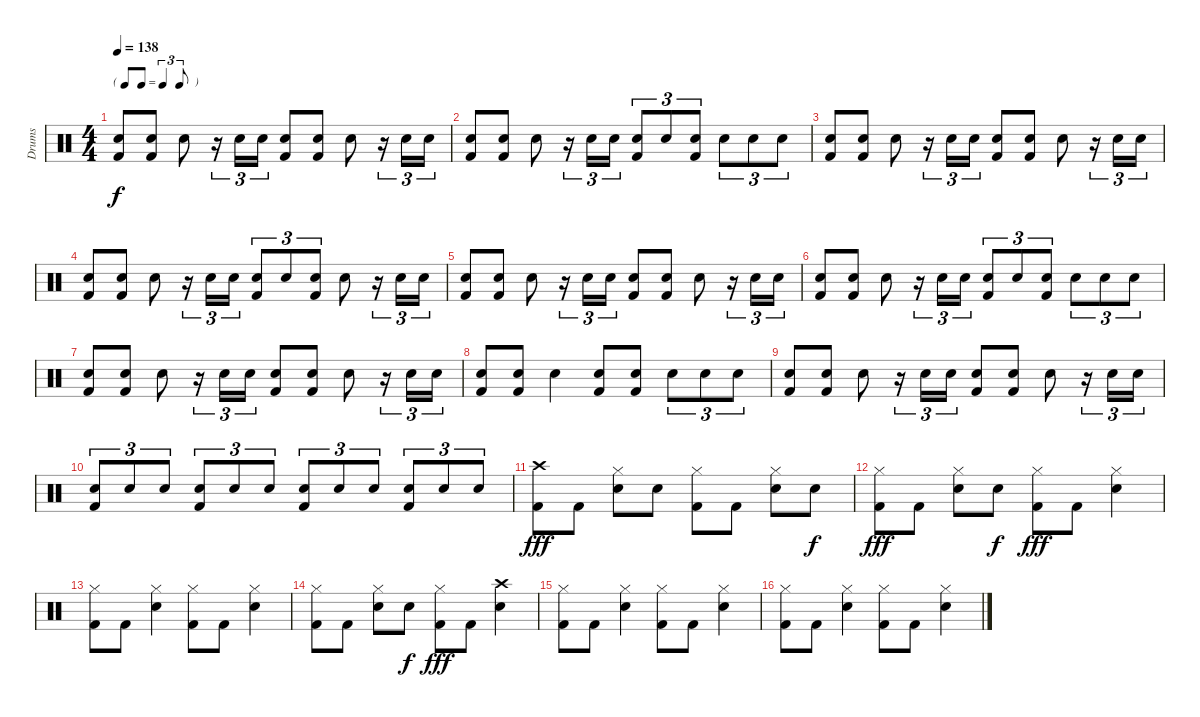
\track ("Drums" "Drums") {instrument percussion}
\staff {score}
\articulation defaults
\ts (4 4)
\tf triplet8th
\tempo 138
\clef neutral
\ks c
("Snare (hit) 2" "Kick (hit) 2").8{dy f} ("Snare (hit) 2" "Kick (hit) 2").8 "Snare (hit) 2".8 r.16{tu (3 2)} "Snare (hit) 2".16{tu (3 2)} "Snare (hit) 2".16{tu (3 2)} ("Snare (hit) 2" "Kick (hit) 2").8 ("Snare (hit) 2" "Kick (hit) 2").8 "Snare (hit) 2".8 r.16{tu (3 2)} "Snare (hit) 2".16{tu (3 2)} "Snare (hit) 2".16{tu (3 2)} |
("Snare (hit) 2" "Kick (hit) 2").8 ("Snare (hit) 2" "Kick (hit) 2").8 "Snare (hit) 2".8 r.16{tu (3 2)} "Snare (hit) 2".16{tu (3 2)} "Snare (hit) 2".16{tu (3 2)} ("Snare (hit) 2" "Kick (hit) 2").8{tu (3 2)} "Snare (hit) 2".8{tu (3 2)} ("Snare (hit) 2" "Kick (hit) 2").8{tu (3 2)} "Snare (hit) 2".8{tu (3 2)} "Snare (hit) 2".8{tu (3 2)} "Snare (hit) 2".8{tu (3 2)} |
("Snare (hit) 2" "Kick (hit) 2").8 ("Snare (hit) 2" "Kick (hit) 2").8 "Snare (hit) 2".8 r.16{tu (3 2)} "Snare (hit) 2".16{tu (3 2)} "Snare (hit) 2".16{tu (3 2)} ("Snare (hit) 2" "Kick (hit) 2").8 ("Snare (hit) 2" "Kick (hit) 2").8 "Snare (hit) 2".8 r.16{tu (3 2)} "Snare (hit) 2".16{tu (3 2)} "Snare (hit) 2".16{tu (3 2)} |
("Snare (hit) 2" "Kick (hit) 2").8 ("Snare (hit) 2" "Kick (hit) 2").8 "Snare (hit) 2".8 r.16{tu (3 2)} "Snare (hit) 2".16{tu (3 2)} "Snare (hit) 2".16{tu (3 2)} ("Snare (hit) 2" "Kick (hit) 2").8{tu (3 2)} "Snare (hit) 2".8{tu (3 2)} ("Snare (hit) 2" "Kick (hit) 2").8{tu (3 2)} "Snare (hit) 2".8 r.16{tu (3 2)} "Snare (hit) 2".16{tu (3 2)} "Snare (hit) 2".16{tu (3 2)} |
("Snare (hit) 2" "Kick (hit) 2").8 ("Snare (hit) 2" "Kick (hit) 2").8 "Snare (hit) 2".8 r.16{tu (3 2)} "Snare (hit) 2".16{tu (3 2)} "Snare (hit) 2".16{tu (3 2)} ("Snare (hit) 2" "Kick (hit) 2").8 ("Snare (hit) 2" "Kick (hit) 2").8 "Snare (hit) 2".8 r.16{tu (3 2)} "Snare (hit) 2".16{tu (3 2)} "Snare (hit) 2".16{tu (3 2)} |
("Snare (hit) 2" "Kick (hit) 2").8 ("Snare (hit) 2" "Kick (hit) 2").8 "Snare (hit) 2".8 r.16{tu (3 2)} "Snare (hit) 2".16{tu (3 2)} "Snare (hit) 2".16{tu (3 2)} ("Snare (hit) 2" "Kick (hit) 2").8{tu (3 2)} "Snare (hit) 2".8{tu (3 2)} ("Snare (hit) 2" "Kick (hit) 2").8{tu (3 2)} "Snare (hit) 2".8{tu (3 2)} "Snare (hit) 2".8{tu (3 2)} "Snare (hit) 2".8{tu (3 2)} |
("Snare (hit) 2" "Kick (hit) 2").8 ("Snare (hit) 2" "Kick (hit) 2").8 "Snare (hit) 2".8 r.16{tu (3 2)} "Snare (hit) 2".16{tu (3 2)} "Snare (hit) 2".16{tu (3 2)} ("Snare (hit) 2" "Kick (hit) 2").8 ("Snare (hit) 2" "Kick (hit) 2").8 "Snare (hit) 2".8 r.16{tu (3 2)} "Snare (hit) 2".16{tu (3 2)} "Snare (hit) 2".16{tu (3 2)} |
("Snare (hit) 2" "Kick (hit) 2").8 ("Snare (hit) 2" "Kick (hit) 2").8 "Snare (hit) 2".4 ("Snare (hit) 2" "Kick (hit) 2").8 ("Snare (hit) 2" "Kick (hit) 2").8 "Snare (hit) 2".8{tu (3 2)} "Snare (hit) 2".8{tu (3 2)} "Snare (hit) 2".8{tu (3 2)} |
("Snare (hit) 2" "Kick (hit) 2").8 ("Snare (hit) 2" "Kick (hit) 2").8 "Snare (hit) 2".8 r.16{tu (3 2)} "Snare (hit) 2".16{tu (3 2)} "Snare (hit) 2".16{tu (3 2)} ("Snare (hit) 2" "Kick (hit) 2").8 ("Snare (hit) 2" "Kick (hit) 2").8 "Snare (hit) 2".8 r.16{tu (3 2)} "Snare (hit) 2".16{tu (3 2)} "Snare (hit) 2".16{tu (3 2)} |
("Snare (hit) 2" "Kick (hit) 2").8{tu (3 2)} "Snare (hit) 2".8{tu (3 2)} "Snare (hit) 2".8{tu (3 2)} ("Snare (hit) 2" "Kick (hit) 2").8{tu (3 2)} "Snare (hit) 2".8{tu (3 2)} "Snare (hit) 2".8{tu (3 2)} ("Snare (hit) 2" "Kick (hit) 2").8{tu (3 2)} "Snare (hit) 2".8{tu (3 2)} "Snare (hit) 2".8{tu (3 2)} ("Snare (hit) 2" "Kick (hit) 2").8{tu (3 2)} "Snare (hit) 2".8{tu (3 2)} "Snare (hit) 2".8{tu (3 2)} |
("Crash high (hit)" "Kick (hit) 2").8{dy fff} "Kick (hit) 2".8 ("Hi-Hat (closed)" "Snare (hit) 2").8 "Snare (hit) 2".8 ("Hi-Hat (closed)" "Kick (hit) 2").8 "Kick (hit) 2".8 ("Hi-Hat (closed)" "Snare (hit) 2").8 "Snare (hit) 2".8{dy f} |
("Hi-Hat (closed)" "Kick (hit) 2").8{dy fff} "Kick (hit) 2".8 ("Hi-Hat (closed)" "Snare (hit) 2").8 "Snare (hit) 2".8{dy f} ("Hi-Hat (closed)" "Kick (hit) 2").8{dy fff} "Kick (hit) 2".8 ("Hi-Hat (closed)" "Snare (hit) 2").4 |
("Hi-Hat (closed)" "Kick (hit) 2").8 "Kick (hit) 2".8 ("Hi-Hat (closed)" "Snare (hit) 2").4 ("Hi-Hat (closed)" "Kick (hit) 2").8 "Kick (hit) 2".8 ("Hi-Hat (closed)" "Snare (hit) 2").4 |
("Hi-Hat (closed)" "Kick (hit) 2").8 "Kick (hit) 2".8 ("Hi-Hat (closed)" "Snare (hit) 2").8 "Snare (hit) 2".8{dy f} ("Hi-Hat (closed)" "Kick (hit) 2").8{dy fff} "Kick (hit) 2".8 ("Crash high (hit)" "Snare (hit) 2").4 |
("Hi-Hat (closed)" "Kick (hit) 2").8 "Kick (hit) 2".8 ("Hi-Hat (closed)" "Snare (hit) 2").4 ("Hi-Hat (closed)" "Kick (hit) 2").8 "Kick (hit) 2".8 ("Hi-Hat (closed)" "Snare (hit) 2").4 |
("Hi-Hat (closed)" "Kick (hit) 2").8 "Kick (hit) 2".8 ("Hi-Hat (closed)" "Snare (hit) 2").4 ("Hi-Hat (closed)" "Kick (hit) 2").8 "Kick (hit) 2".8 ("Hi-Hat (closed)" "Snare (hit) 2").4
